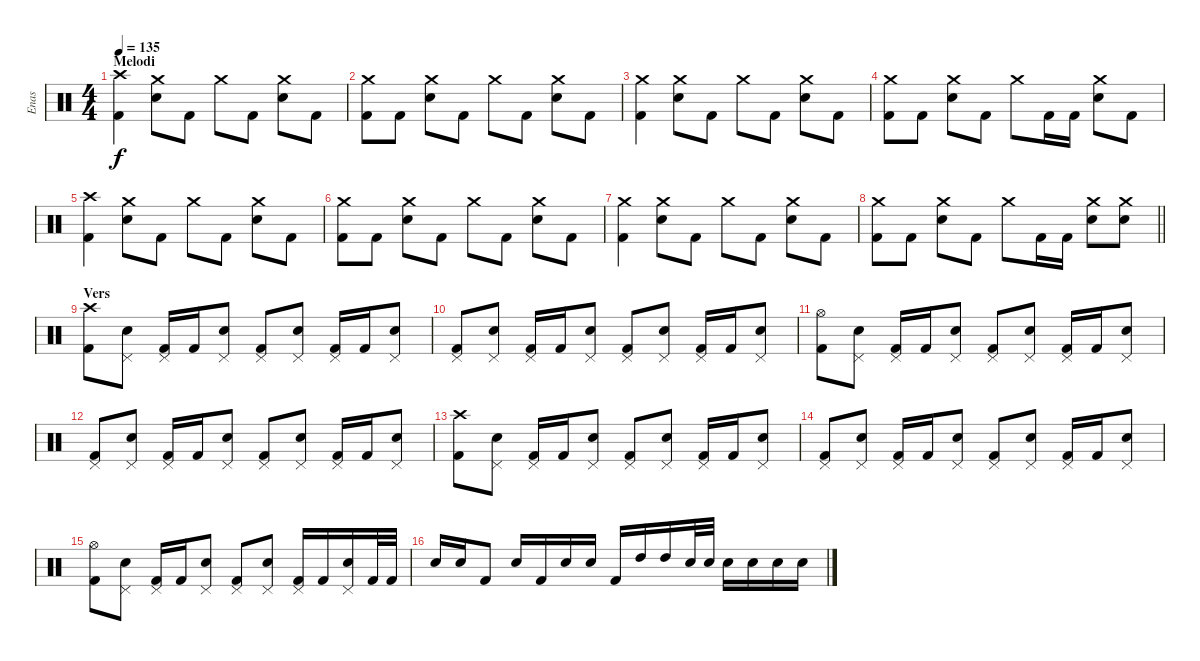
\track ("Enas" "Enas") {instrument percussion}
\staff {score}
\articulation defaults
\ts (4 4)
\section ("" "Melodi")
\tempo 135
\clef neutral
\ks c
("Kick (hit) 2" "Crash high (hit)").4{dy f} ("Snare (hit) 2" "Crash medium (hit)").8 "Kick (hit) 2".8 "Crash medium (hit)".8 "Kick (hit) 2".8 ("Snare (hit) 2" "Crash medium (hit)").8 "Kick (hit) 2".8 |
("Kick (hit) 2" "Crash medium (hit)").8 "Kick (hit) 2".8 ("Snare (hit) 2" "Crash medium (hit)").8 "Kick (hit) 2".8 "Crash medium (hit)".8 "Kick (hit) 2".8 ("Snare (hit) 2" "Crash medium (hit)").8 "Kick (hit) 2".8 |
("Kick (hit) 2" "Crash medium (hit)").4 ("Snare (hit) 2" "Crash medium (hit)").8 "Kick (hit) 2".8 "Crash medium (hit)".8 "Kick (hit) 2".8 ("Snare (hit) 2" "Crash medium (hit)").8 "Kick (hit) 2".8 |
("Kick (hit) 2" "Crash medium (hit)").8 "Kick (hit) 2".8 ("Snare (hit) 2" "Crash medium (hit)").8 "Kick (hit) 2".8 "Crash medium (hit)".8 "Kick (hit) 2".16 "Kick (hit) 2".16 ("Snare (hit) 2" "Crash medium (hit)").8 "Kick (hit) 2".8 |
("Kick (hit) 2" "Crash high (hit)").4 ("Snare (hit) 2" "Crash medium (hit)").8 "Kick (hit) 2".8 "Crash medium (hit)".8 "Kick (hit) 2".8 ("Snare (hit) 2" "Crash medium (hit)").8 "Kick (hit) 2".8 |
("Kick (hit) 2" "Crash medium (hit)").8 "Kick (hit) 2".8 ("Snare (hit) 2" "Crash medium (hit)").8 "Kick (hit) 2".8 "Crash medium (hit)".8 "Kick (hit) 2".8 ("Snare (hit) 2" "Crash medium (hit)").8 "Kick (hit) 2".8 |
("Kick (hit) 2" "Crash medium (hit)").4 ("Snare (hit) 2" "Crash medium (hit)").8 "Kick (hit) 2".8 "Crash medium (hit)".8 "Kick (hit) 2".8 ("Snare (hit) 2" "Crash medium (hit)").8 "Kick (hit) 2".8 |
\barLineRight lightlight
("Kick (hit) 2" "Crash medium (hit)").8 "Kick (hit) 2".8 ("Snare (hit) 2" "Crash medium (hit)").8 "Kick (hit) 2".8 "Crash medium (hit)".8 "Kick (hit) 2".16 "Kick (hit) 2".16 ("Snare (hit) 2" "Crash medium (hit)").8 ("Snare (hit) 2" "Crash medium (hit)").8 |
\section ("" "Vers")
("Kick (hit) 2" "Crash high (hit)").8 ("Snare (hit) 2" "Pedal Hi-Hat (hit)").8 ("Kick (hit) 2" "Pedal Hi-Hat (hit)").16 "Kick (hit) 2".16 ("Snare (hit) 2" "Pedal Hi-Hat (hit)").8 ("Kick (hit) 2" "Pedal Hi-Hat (hit)").8 ("Snare (hit) 2" "Pedal Hi-Hat (hit)").8 ("Kick (hit) 2" "Pedal Hi-Hat (hit)").16 "Kick (hit) 2".16 ("Snare (hit) 2" "Pedal Hi-Hat (hit)").8 |
("Kick (hit) 2" "Pedal Hi-Hat (hit)").8 ("Snare (hit) 2" "Pedal Hi-Hat (hit)").8 ("Kick (hit) 2" "Pedal Hi-Hat (hit)").16 "Kick (hit) 2".16 ("Snare (hit) 2" "Pedal Hi-Hat (hit)").8 ("Kick (hit) 2" "Pedal Hi-Hat (hit)").8 ("Snare (hit) 2" "Pedal Hi-Hat (hit)").8 ("Kick (hit) 2" "Pedal Hi-Hat (hit)").16 "Kick (hit) 2".16 ("Snare (hit) 2" "Pedal Hi-Hat (hit)").8 |
("Kick (hit) 2" "Hi-Hat (open)").8 ("Snare (hit) 2" "Pedal Hi-Hat (hit)").8 ("Kick (hit) 2" "Pedal Hi-Hat (hit)").16 "Kick (hit) 2".16 ("Snare (hit) 2" "Pedal Hi-Hat (hit)").8 ("Kick (hit) 2" "Pedal Hi-Hat (hit)").8 ("Snare (hit) 2" "Pedal Hi-Hat (hit)").8 ("Kick (hit) 2" "Pedal Hi-Hat (hit)").16 "Kick (hit) 2".16 ("Snare (hit) 2" "Pedal Hi-Hat (hit)").8 |
("Kick (hit) 2" "Pedal Hi-Hat (hit)").8 ("Snare (hit) 2" "Pedal Hi-Hat (hit)").8 ("Kick (hit) 2" "Pedal Hi-Hat (hit)").16 "Kick (hit) 2".16 ("Snare (hit) 2" "Pedal Hi-Hat (hit)").8 ("Kick (hit) 2" "Pedal Hi-Hat (hit)").8 ("Snare (hit) 2" "Pedal Hi-Hat (hit)").8 ("Kick (hit) 2" "Pedal Hi-Hat (hit)").16 "Kick (hit) 2".16 ("Snare (hit) 2" "Pedal Hi-Hat (hit)").8 |
("Kick (hit) 2" "Crash high (hit)").8 ("Snare (hit) 2" "Pedal Hi-Hat (hit)").8 ("Kick (hit) 2" "Pedal Hi-Hat (hit)").16 "Kick (hit) 2".16 ("Snare (hit) 2" "Pedal Hi-Hat (hit)").8 ("Kick (hit) 2" "Pedal Hi-Hat (hit)").8 ("Snare (hit) 2" "Pedal Hi-Hat (hit)").8 ("Kick (hit) 2" "Pedal Hi-Hat (hit)").16 "Kick (hit) 2".16 ("Snare (hit) 2" "Pedal Hi-Hat (hit)").8 |
("Kick (hit) 2" "Pedal Hi-Hat (hit)").8 ("Snare (hit) 2" "Pedal Hi-Hat (hit)").8 ("Kick (hit) 2" "Pedal Hi-Hat (hit)").16 "Kick (hit) 2".16 ("Snare (hit) 2" "Pedal Hi-Hat (hit)").8 ("Kick (hit) 2" "Pedal Hi-Hat (hit)").8 ("Snare (hit) 2" "Pedal Hi-Hat (hit)").8 ("Kick (hit) 2" "Pedal Hi-Hat (hit)").16 "Kick (hit) 2".16 ("Snare (hit) 2" "Pedal Hi-Hat (hit)").8 |
("Kick (hit) 2" "Hi-Hat (open)").8 ("Snare (hit) 2" "Pedal Hi-Hat (hit)").8 ("Kick (hit) 2" "Pedal Hi-Hat (hit)").16 "Kick (hit) 2".16 ("Snare (hit) 2" "Pedal Hi-Hat (hit)").8 ("Kick (hit) 2" "Pedal Hi-Hat (hit)").8 ("Snare (hit) 2" "Pedal Hi-Hat (hit)").8 ("Kick (hit) 2" "Pedal Hi-Hat (hit)").16 "Kick (hit) 2".16 ("Snare (hit) 2" "Pedal Hi-Hat (hit)").16 "Kick (hit) 2".32 "Kick (hit) 2".32 |
"Snare (hit) 2".16 "Snare (hit) 2".16 "Kick (hit) 2".8 "Snare (hit) 2".16 "Kick (hit) 2".16 "Snare (hit) 2".16 "Snare (hit) 2".16 "Kick (hit) 2".16 "High Tom (hit)".16 "High Tom (hit)".16 "Snare (hit) 2".32 "Snare (hit) 2".32 "Snare (hit) 2".16 "Snare (hit) 2".16 "Snare (hit) 2".16 "Snare (hit) 2".16
